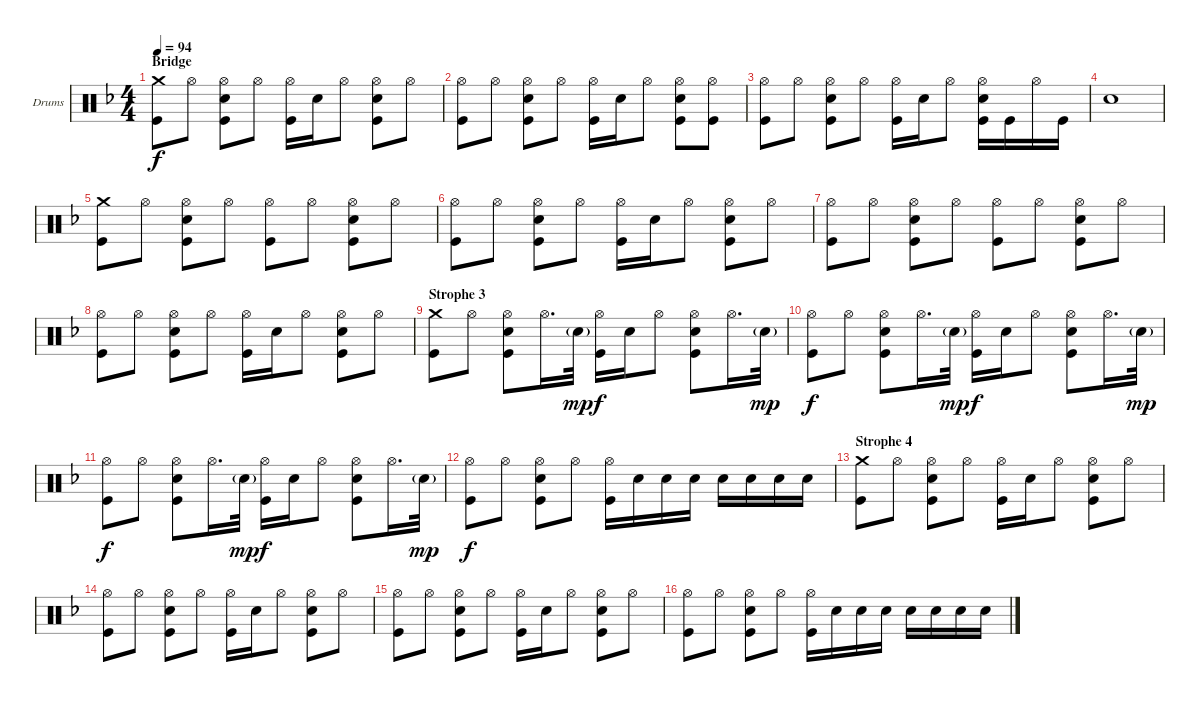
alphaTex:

\defaultSystemsLayout 4
\bracketExtendMode groupsimilarinstruments
\firstSystemTrackNameOrientation horizontal
\otherSystemsTrackNameOrientation horizontal
\track ("Drumkit" "Drums") {instrument percussion}
\staff {score}
\articulation defaults
\ts (4 4)
\section ("" "Bridge")
\tempo 94
\clef neutral
\ks dminor
("Kick (hit)" "Crash medium (hit)").8{dy f} "Hi-Hat (open)".8 ("Kick (hit)" "Snare (hit) 2" "Hi-Hat (open)").8 "Hi-Hat (open)".8 ("Hi-Hat (open)" "Kick (hit)").16 "Snare (hit) 2".16 "Hi-Hat (open)".8 ("Hi-Hat (open)" "Kick (hit)" "Snare (hit) 2").8 "Hi-Hat (open)".8 |
("Kick (hit)" "Hi-Hat (open)").8 "Hi-Hat (open)".8 ("Kick (hit)" "Snare (hit) 2" "Hi-Hat (open)").8 "Hi-Hat (open)".8 ("Hi-Hat (open)" "Kick (hit)").16 "Snare (hit) 2".16 "Hi-Hat (open)".8 ("Hi-Hat (open)" "Kick (hit)" "Snare (hit) 2").8 ("Hi-Hat (open)" "Kick (hit)").8 |
("Kick (hit)" "Hi-Hat (open)").8 "Hi-Hat (open)".8 ("Kick (hit)" "Snare (hit) 2" "Hi-Hat (open)").8 "Hi-Hat (open)".8 ("Hi-Hat (open)" "Kick (hit)").16 "Snare (hit) 2".16 "Hi-Hat (open)".8 ("Hi-Hat (open)" "Kick (hit)" "Snare (hit) 2").16 "Kick (hit)".16 "Hi-Hat (open)".16 "Kick (hit)".16 |
"Snare (hit) 2".1 |
("Kick (hit)" "Crash medium (hit)").8 "Hi-Hat (open)".8 ("Kick (hit)" "Snare (hit) 2" "Hi-Hat (open)").8 "Hi-Hat (open)".8 ("Hi-Hat (open)" "Kick (hit)").8 "Hi-Hat (open)".8 ("Hi-Hat (open)" "Kick (hit)" "Snare (hit) 2").8 "Hi-Hat (open)".8 |
("Kick (hit)" "Hi-Hat (open)").8 "Hi-Hat (open)".8 ("Kick (hit)" "Snare (hit) 2" "Hi-Hat (open)").8 "Hi-Hat (open)".8 ("Hi-Hat (open)" "Kick (hit)").16 "Snare (hit) 2".16 "Hi-Hat (open)".8 ("Hi-Hat (open)" "Kick (hit)" "Snare (hit) 2").8 "Hi-Hat (open)".8 |
("Kick (hit)" "Hi-Hat (open)").8 "Hi-Hat (open)".8 ("Kick (hit)" "Snare (hit) 2" "Hi-Hat (open)").8 "Hi-Hat (open)".8 ("Hi-Hat (open)" "Kick (hit)").8 "Hi-Hat (open)".8 ("Hi-Hat (open)" "Kick (hit)" "Snare (hit) 2").8 "Hi-Hat (open)".8 |
("Kick (hit)" "Hi-Hat (open)").8 "Hi-Hat (open)".8 ("Kick (hit)" "Snare (hit) 2" "Hi-Hat (open)").8 "Hi-Hat (open)".8 ("Hi-Hat (open)" "Kick (hit)").16 "Snare (hit) 2".16 "Hi-Hat (open)".8 ("Hi-Hat (open)" "Kick (hit)" "Snare (hit) 2").8 "Hi-Hat (open)".8 |
\section ("" "Strophe 3")
("Kick (hit)" "Crash medium (hit)").8 "Hi-Hat (open)".8 ("Kick (hit)" "Snare (hit) 2" "Hi-Hat (open)").8 "Hi-Hat (open)".16{d} "Snare (hit) 2"{g}.32{dy mp} ("Hi-Hat (open)" "Kick (hit)").16{dy f} "Snare (hit) 2".16 "Hi-Hat (open)".8 ("Hi-Hat (open)" "Kick (hit)" "Snare (hit) 2").8 "Hi-Hat (open)".16{d} "Snare (hit) 2"{g}.32{dy mp} |
("Kick (hit)" "Hi-Hat (open)").8{dy f} "Hi-Hat (open)".8 ("Kick (hit)" "Snare (hit) 2" "Hi-Hat (open)").8 "Hi-Hat (open)".16{d} "Snare (hit) 2"{g}.32{dy mp} ("Hi-Hat (open)" "Kick (hit)").16{dy f} "Snare (hit) 2".16 "Hi-Hat (open)".8 ("Hi-Hat (open)" "Kick (hit)" "Snare (hit) 2").8 "Hi-Hat (open)".16{d} "Snare (hit) 2"{g}.32{dy mp} |
("Kick (hit)" "Hi-Hat (open)").8{dy f} "Hi-Hat (open)".8 ("Kick (hit)" "Snare (hit) 2" "Hi-Hat (open)").8 "Hi-Hat (open)".16{d} "Snare (hit) 2"{g}.32{dy mp} ("Hi-Hat (open)" "Kick (hit)").16{dy f} "Snare (hit) 2".16 "Hi-Hat (open)".8 ("Hi-Hat (open)" "Kick (hit)" "Snare (hit) 2").8 "Hi-Hat (open)".16{d} "Snare (hit) 2"{g}.32{dy mp} |
("Kick (hit)" "Hi-Hat (open)").8{dy f} "Hi-Hat (open)".8 ("Kick (hit)" "Snare (hit) 2" "Hi-Hat (open)").8 "Hi-Hat (open)".8 ("Hi-Hat (open)" "Kick (hit)").16 "Snare (hit) 2".16 "Snare (hit) 2".16 "Snare (hit) 2".16 "Snare (hit) 2".16 "Snare (hit) 2".16 "Snare (hit) 2".16 "Snare (hit) 2".16 |
\section ("" "Strophe 4")
("Kick (hit)" "Crash medium (hit)").8 "Hi-Hat (open)".8 ("Kick (hit)" "Snare (hit) 2" "Hi-Hat (open)").8 "Hi-Hat (open)".8 ("Hi-Hat (open)" "Kick (hit)").16 "Snare (hit) 2".16 "Hi-Hat (open)".8 ("Hi-Hat (open)" "Kick (hit)" "Snare (hit) 2").8 "Hi-Hat (open)".8 |
("Kick (hit)" "Hi-Hat (open)").8 "Hi-Hat (open)".8 ("Kick (hit)" "Snare (hit) 2" "Hi-Hat (open)").8 "Hi-Hat (open)".8 ("Hi-Hat (open)" "Kick (hit)").16 "Snare (hit) 2".16 "Hi-Hat (open)".8 ("Hi-Hat (open)" "Kick (hit)" "Snare (hit) 2").8 "Hi-Hat (open)".8 |
("Kick (hit)" "Hi-Hat (open)").8 "Hi-Hat (open)".8 ("Kick (hit)" "Snare (hit) 2" "Hi-Hat (open)").8 "Hi-Hat (open)".8 ("Hi-Hat (open)" "Kick (hit)").16 "Snare (hit) 2".16 "Hi-Hat (open)".8 ("Hi-Hat (open)" "Kick (hit)" "Snare (hit) 2").8 "Hi-Hat (open)".8 |
("Kick (hit)" "Hi-Hat (open)").8 "Hi-Hat (open)".8 ("Kick (hit)" "Snare (hit) 2" "Hi-Hat (open)").8 "Hi-Hat (open)".8 ("Kick (hit)" "Hi-Hat (open)").16 "Snare (hit) 2".16 "Snare (hit) 2".16 "Snare (hit) 2".16 "Snare (hit) 2".16 "Snare (hit) 2".16 "Snare (hit) 2".16 "Snare (hit) 2".16
